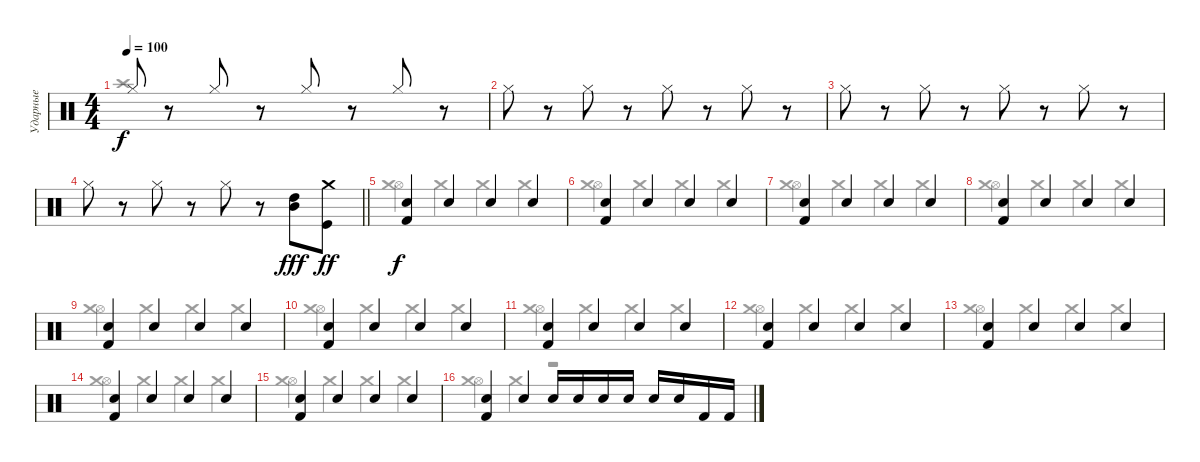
\track ("Ударные" "Ударные") {instrument percussion}
\staff {score}
\articulation defaults
\voice
\ts (4 4)
\tempo 100
\clef neutral
\ks c "Hi-Hat (closed)".8{dy f}
r.8 "Hi-Hat (closed)".8 r.8 "Hi-Hat (closed)".8 r.8 "Hi-Hat (closed)".8 r.8 |
"Hi-Hat (closed)".8 r.8 "Hi-Hat (closed)".8 r.8 "Hi-Hat (closed)".8 r.8 "Hi-Hat (closed)".8 r.8 |
"Hi-Hat (closed)".8 r.8 "Hi-Hat (closed)".8 r.8 "Hi-Hat (closed)".8 r.8 "Hi-Hat (closed)".8 r.8 |
\barLineRight lightlight "Hi-Hat (closed)".8
r.8 "Hi-Hat (closed)".8 r.8 "Hi-Hat (closed)".8 r.8 ("Mid Tom (hit)" "High Tom (hit)").8{dy fff} ("Crash medium (hit)" "Kick (hit)").8{dy ff} |
("Electric Snare (hit)" "Kick (hit) 2").4{dy f} "Electric Snare (hit)".4 "Electric Snare (hit)".4 "Electric Snare (hit)".4 |
("Electric Snare (hit)" "Kick (hit) 2").4 "Electric Snare (hit)".4 "Electric Snare (hit)".4 "Electric Snare (hit)".4 |
("Electric Snare (hit)" "Kick (hit) 2").4 "Electric Snare (hit)".4 "Electric Snare (hit)".4 "Electric Snare (hit)".4 |
("Electric Snare (hit)" "Kick (hit) 2").4 "Electric Snare (hit)".4 "Electric Snare (hit)".4 "Electric Snare (hit)".4 |
("Electric Snare (hit)" "Kick (hit) 2").4 "Electric Snare (hit)".4 "Electric Snare (hit)".4 "Electric Snare (hit)".4 |
("Electric Snare (hit)" "Kick (hit) 2").4 "Electric Snare (hit)".4 "Electric Snare (hit)".4 "Electric Snare (hit)".4 |
("Electric Snare (hit)" "Kick (hit) 2").4 "Electric Snare (hit)".4 "Electric Snare (hit)".4 "Electric Snare (hit)".4 |
("Electric Snare (hit)" "Kick (hit) 2").4 "Electric Snare (hit)".4 "Electric Snare (hit)".4 "Electric Snare (hit)".4 |
("Electric Snare (hit)" "Kick (hit) 2").4 "Electric Snare (hit)".4 "Electric Snare (hit)".4 "Electric Snare (hit)".4 |
("Electric Snare (hit)" "Kick (hit) 2").4 "Electric Snare (hit)".4 "Electric Snare (hit)".4 "Electric Snare (hit)".4 |
("Electric Snare (hit)" "Kick (hit) 2").4 "Electric Snare (hit)".4 "Electric Snare (hit)".4 "Electric Snare (hit)".4 |
("Electric Snare (hit)" "Kick (hit) 2").4 "Electric Snare (hit)".4 "Electric Snare (hit)".16 "Electric Snare (hit)".16 "Electric Snare (hit)".16 "Snare (hit) 2".16 "Snare (hit) 2".16 "Snare (hit) 2".16 "Kick (hit) 2".16 "Kick (hit) 2".16
\voice
\clef neutral
\ottava regular
\simile none
\ks c "Crash high (hit)".1{dy f}
|
|
|
\barLineRight lightlight
|
("Hi-Hat (open)" "Crash medium (hit)").4 "Crash medium (hit)".4 "Crash medium (hit)".4 "Crash medium (hit)".4 |
("Hi-Hat (open)" "Crash medium (hit)").4 "Crash medium (hit)".4 "Crash medium (hit)".4 "Crash medium (hit)".4 |
("Hi-Hat (open)" "Crash medium (hit)").4 "Crash medium (hit)".4 "Crash medium (hit)".4 "Crash medium (hit)".4 |
("Hi-Hat (open)" "Crash medium (hit)").4 "Crash medium (hit)".4 "Crash medium (hit)".4 "Crash medium (hit)".4 |
("Hi-Hat (open)" "Crash medium (hit)").4 "Crash medium (hit)".4 "Crash medium (hit)".4 "Crash medium (hit)".4 |
("Hi-Hat (open)" "Crash medium (hit)").4 "Crash medium (hit)".4 "Crash medium (hit)".4 "Crash medium (hit)".4 |
("Hi-Hat (open)" "Crash medium (hit)").4 "Crash medium (hit)".4 "Crash medium (hit)".4 "Crash medium (hit)".4 |
("Hi-Hat (open)" "Crash medium (hit)").4 "Crash medium (hit)".4 "Crash medium (hit)".4 "Crash medium (hit)".4 |
("Hi-Hat (open)" "Crash medium (hit)").4 "Crash medium (hit)".4 "Crash medium (hit)".4 "Crash medium (hit)".4 |
("Hi-Hat (open)" "Crash medium (hit)").4 "Crash medium (hit)".4 "Crash medium (hit)".4 "Crash medium (hit)".4 |
("Hi-Hat (open)" "Crash medium (hit)").4 "Crash medium (hit)".4 "Crash medium (hit)".4 "Crash medium (hit)".4 |
("Hi-Hat (open)" "Crash medium (hit)").4 "Crash medium (hit)".4 r.2
